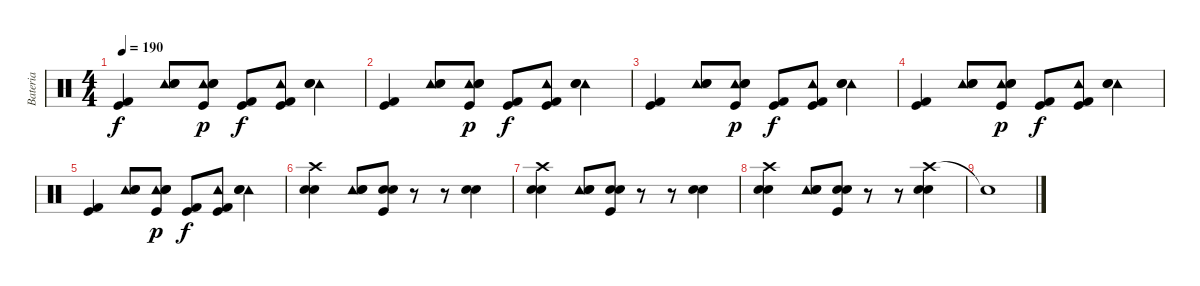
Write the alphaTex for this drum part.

\track ("Bateria" "Bateria") {instrument percussion}
\staff {score}
\articulation defaults
\ts (4 4)
\tempo 190
\clef neutral
\ks c
("Kick (hit) 2" "Kick (hit)").4{dy f} ("Tambourine (hit)" "Snare (hit) 2" "Electric Snare (hit)").8 ("Tambourine (hit)" "Snare (hit) 2" "Electric Snare (hit)" "Kick (hit)").8{dy p} ("Kick (hit) 2" "Kick (hit)").8{dy f} ("Tambourine (hit)" "Kick (hit) 2" "Kick (hit)").8 ("Tambourine (hit)" "Snare (hit) 2" "Electric Snare (hit)").4 |
("Kick (hit) 2" "Kick (hit)").4 ("Tambourine (hit)" "Snare (hit) 2" "Electric Snare (hit)").8 ("Tambourine (hit)" "Snare (hit) 2" "Electric Snare (hit)" "Kick (hit)").8{dy p} ("Kick (hit) 2" "Kick (hit)").8{dy f} ("Tambourine (hit)" "Kick (hit) 2" "Kick (hit)").8 ("Tambourine (hit)" "Snare (hit) 2" "Electric Snare (hit)").4 |
("Kick (hit) 2" "Kick (hit)").4 ("Tambourine (hit)" "Snare (hit) 2" "Electric Snare (hit)").8 ("Tambourine (hit)" "Snare (hit) 2" "Electric Snare (hit)" "Kick (hit)").8{dy p} ("Kick (hit) 2" "Kick (hit)").8{dy f} ("Tambourine (hit)" "Kick (hit) 2" "Kick (hit)").8 ("Tambourine (hit)" "Snare (hit) 2" "Electric Snare (hit)").4 |
("Kick (hit) 2" "Kick (hit)").4 ("Tambourine (hit)" "Snare (hit) 2" "Electric Snare (hit)").8 ("Tambourine (hit)" "Snare (hit) 2" "Electric Snare (hit)" "Kick (hit)").8{dy p} ("Kick (hit) 2" "Kick (hit)").8{dy f} ("Tambourine (hit)" "Kick (hit) 2" "Kick (hit)").8 ("Tambourine (hit)" "Snare (hit) 2" "Electric Snare (hit)").4 |
("Kick (hit) 2" "Kick (hit)").4 ("Tambourine (hit)" "Snare (hit) 2" "Electric Snare (hit)").8 ("Tambourine (hit)" "Snare (hit) 2" "Electric Snare (hit)" "Kick (hit)").8{dy p} ("Kick (hit) 2" "Kick (hit)").8{dy f} ("Tambourine (hit)" "Kick (hit) 2" "Kick (hit)").8 ("Tambourine (hit)" "Snare (hit) 2" "Electric Snare (hit)").4 |
("Crash high (hit)" "Snare (hit) 2" "Electric Snare (hit)").4 ("Tambourine (hit)" "Snare (hit) 2" "Electric Snare (hit)").8 ("Snare (hit) 2" "Electric Snare (hit)" "Kick (hit)").8 r.8 r.8 ("Snare (hit) 2" "Electric Snare (hit)").4 |
("Crash high (hit)" "Snare (hit) 2" "Electric Snare (hit)").4 ("Tambourine (hit)" "Snare (hit) 2" "Electric Snare (hit)").8 ("Snare (hit) 2" "Electric Snare (hit)" "Kick (hit)").8 r.8 r.8 ("Snare (hit) 2" "Electric Snare (hit)").4 |
("Crash high (hit)" "Snare (hit) 2" "Electric Snare (hit)").4 ("Tambourine (hit)" "Snare (hit) 2" "Electric Snare (hit)").8 ("Snare (hit) 2" "Electric Snare (hit)" "Kick (hit)").8 r.8 r.8 ("Crash high (hit)" "Snare (hit) 2" "Electric Snare (hit)").4 |
"Snare (hit)"{t}.1
